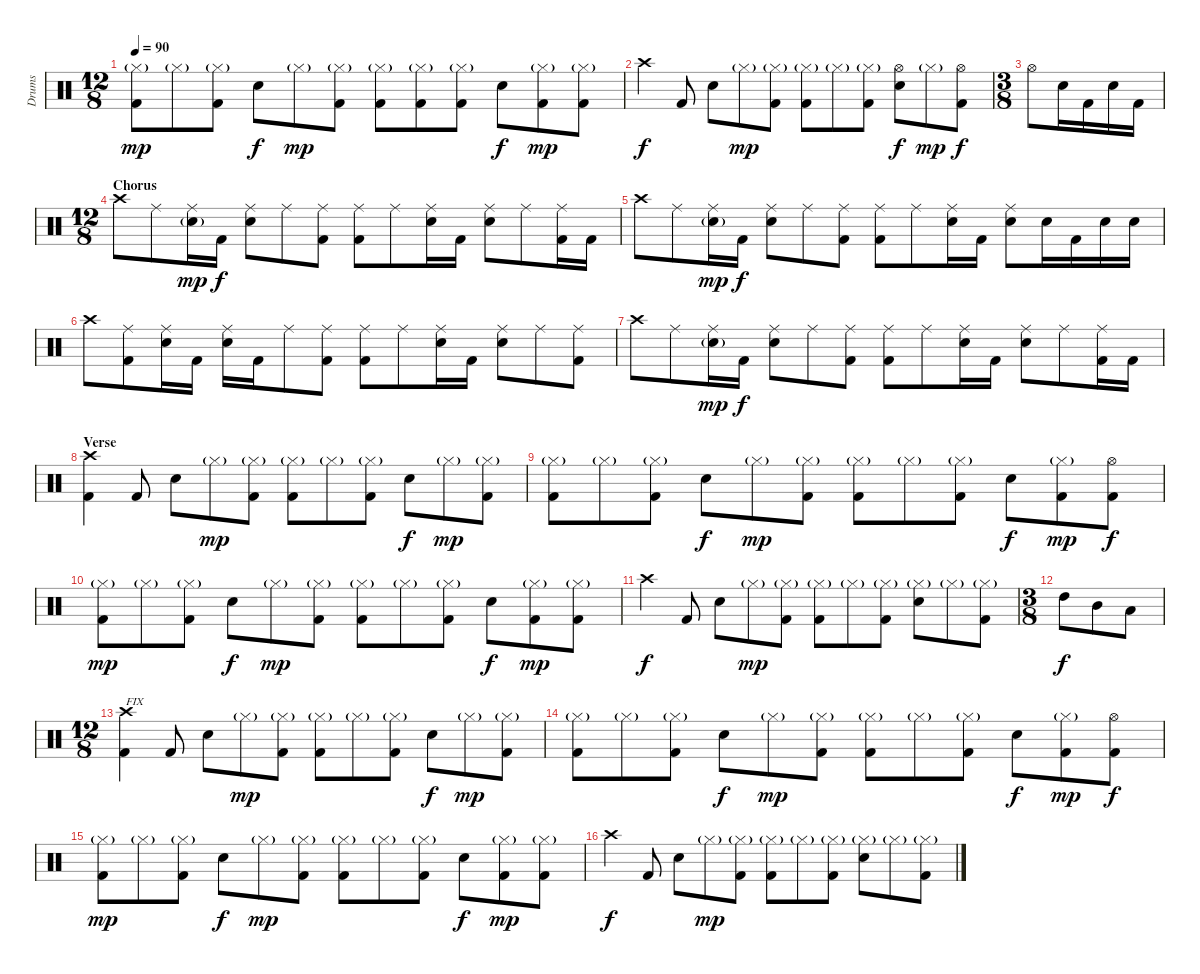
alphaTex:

\track ("Drums" "Drums") {instrument percussion}
\staff {score}
\articulation defaults
\ts (12 8)
\tempo 90
\clef neutral
\ks c
("Hi-Hat (closed)"{g} "Kick (hit) 2").8{dy mp} "Hi-Hat (closed)"{g}.8 ("Hi-Hat (closed)"{g} "Kick (hit) 2").8 "Electric Snare (hit)".8{dy f} "Hi-Hat (closed)"{g}.8{dy mp} ("Hi-Hat (closed)"{g} "Kick (hit) 2").8 ("Hi-Hat (closed)"{g} "Kick (hit) 2").8 ("Hi-Hat (closed)"{g} "Kick (hit) 2").8 ("Hi-Hat (closed)"{g} "Kick (hit) 2").8 "Electric Snare (hit)".8{dy f} ("Hi-Hat (closed)"{g} "Kick (hit) 2").8{dy mp} ("Hi-Hat (closed)"{g} "Kick (hit) 2").8 |
"Crash high (hit)".4{dy f} "Kick (hit) 2".8 "Electric Snare (hit)".8 "Hi-Hat (closed)"{g}.8{dy mp} ("Hi-Hat (closed)"{g} "Kick (hit) 2").8 ("Hi-Hat (closed)"{g} "Kick (hit) 2").8 "Hi-Hat (closed)"{g}.8 ("Hi-Hat (closed)"{g} "Kick (hit) 2").8 ("Hi-Hat (open)" "Electric Snare (hit)").8{dy f} "Hi-Hat (closed)"{g}.8{dy mp} ("Hi-Hat (open)" "Kick (hit) 2").8{dy f} |
\ts (3 8)
"Hi-Hat (open)".8 "Electric Snare (hit)".16 "Kick (hit) 2".16 "Electric Snare (hit)".16 "Kick (hit) 2".16 |
\ts (12 8)
\section ("" "Chorus")
"Crash high (hit)".8 "Ride (middle)".8 ("Ride (middle)" "Electric Snare (hit)"{g}).16{dy mp} "Kick (hit) 2".16{dy f} ("Ride (middle)" "Electric Snare (hit)").8 "Ride (middle)".8 ("Ride (middle)" "Kick (hit) 2").8 ("Ride (middle)" "Kick (hit) 2").8 "Ride (middle)".8 ("Ride (middle)" "Electric Snare (hit)").16 "Kick (hit) 2".16 ("Ride (middle)" "Electric Snare (hit)").8 "Ride (middle)".8 ("Ride (middle)" "Kick (hit) 2").16 "Kick (hit) 2".16 |
"Crash high (hit)".8 "Ride (middle)".8 ("Ride (middle)" "Electric Snare (hit)"{g}).16{dy mp} "Kick (hit) 2".16{dy f} ("Ride (middle)" "Electric Snare (hit)").8 "Ride (middle)".8 ("Ride (middle)" "Kick (hit) 2").8 ("Ride (middle)" "Kick (hit) 2").8 "Ride (middle)".8 ("Ride (middle)" "Electric Snare (hit)").16 "Kick (hit) 2".16 ("Ride (middle)" "Electric Snare (hit)").8 "Electric Snare (hit)".16 "Kick (hit) 2".16 "Electric Snare (hit)".16 "Electric Snare (hit)".16 |
"Crash high (hit)".8 ("Ride (middle)" "Kick (hit) 2").8 ("Ride (middle)" "Electric Snare (hit)").16 "Kick (hit) 2".16 ("Ride (middle)" "Electric Snare (hit)").16 "Kick (hit) 2".16 "Ride (middle)".8 ("Ride (middle)" "Kick (hit) 2").8 ("Ride (middle)" "Kick (hit) 2").8 "Ride (middle)".8 ("Ride (middle)" "Electric Snare (hit)").16 "Kick (hit) 2".16 ("Ride (middle)" "Electric Snare (hit)").8 "Ride (middle)".8 ("Ride (middle)" "Kick (hit) 2").8 |
"Crash high (hit)".8 "Ride (middle)".8 ("Ride (middle)" "Electric Snare (hit)"{g}).16{dy mp} "Kick (hit) 2".16{dy f} ("Ride (middle)" "Electric Snare (hit)").8 "Ride (middle)".8 ("Ride (middle)" "Kick (hit) 2").8 ("Ride (middle)" "Kick (hit) 2").8 "Ride (middle)".8 ("Ride (middle)" "Electric Snare (hit)").16 "Kick (hit) 2".16 ("Ride (middle)" "Electric Snare (hit)").8 "Ride (middle)".8 ("Ride (middle)" "Kick (hit) 2").16 "Kick (hit) 2".16 |
\section ("" "Verse")
("Crash high (hit)" "Kick (hit) 2").4 "Kick (hit) 2".8 "Electric Snare (hit)".8 "Hi-Hat (closed)"{g}.8{dy mp} ("Hi-Hat (closed)"{g} "Kick (hit) 2").8 ("Hi-Hat (closed)"{g} "Kick (hit) 2").8 "Hi-Hat (closed)"{g}.8 ("Hi-Hat (closed)"{g} "Kick (hit) 2").8 "Electric Snare (hit)".8{dy f} "Hi-Hat (closed)"{g}.8{dy mp} ("Hi-Hat (closed)"{g} "Kick (hit) 2").8 |
("Hi-Hat (closed)"{g} "Kick (hit) 2").8 "Hi-Hat (closed)"{g}.8 ("Hi-Hat (closed)"{g} "Kick (hit) 2").8 "Electric Snare (hit)".8{dy f} "Hi-Hat (closed)"{g}.8{dy mp} ("Hi-Hat (closed)"{g} "Kick (hit) 2").8 ("Hi-Hat (closed)"{g} "Kick (hit) 2").8 "Hi-Hat (closed)"{g}.8 ("Hi-Hat (closed)"{g} "Kick (hit) 2").8 "Electric Snare (hit)".8{dy f} ("Hi-Hat (closed)"{g} "Kick (hit) 2").8{dy mp} ("Hi-Hat (open)" "Kick (hit) 2").8{dy f} |
("Hi-Hat (closed)"{g} "Kick (hit) 2").8{dy mp} "Hi-Hat (closed)"{g}.8 ("Hi-Hat (closed)"{g} "Kick (hit) 2").8 "Electric Snare (hit)".8{dy f} "Hi-Hat (closed)"{g}.8{dy mp} ("Hi-Hat (closed)"{g} "Kick (hit) 2").8 ("Hi-Hat (closed)"{g} "Kick (hit) 2").8 "Hi-Hat (closed)"{g}.8 ("Hi-Hat (closed)"{g} "Kick (hit) 2").8 "Electric Snare (hit)".8{dy f} ("Hi-Hat (closed)"{g} "Kick (hit) 2").8{dy mp} ("Hi-Hat (closed)"{g} "Kick (hit) 2").8 |
"Crash high (hit)".4{dy f} "Kick (hit) 2".8 "Electric Snare (hit)".8 "Hi-Hat (closed)"{g}.8{dy mp} ("Hi-Hat (closed)"{g} "Kick (hit) 2").8 ("Hi-Hat (closed)"{g} "Kick (hit) 2").8 "Hi-Hat (closed)"{g}.8 ("Hi-Hat (closed)"{g} "Kick (hit) 2").8 ("Hi-Hat (closed)"{g} "Electric Snare (hit)").8 "Hi-Hat (closed)"{g}.8 ("Hi-Hat (closed)"{g} "Kick (hit) 2").8 |
\ts (3 8)
"High Tom (hit)".8{dy f} "Mid Tom (hit)".8 "Low Tom (hit)".8 |
\ts (12 8)
("Crash high (hit)" "Kick (hit) 2").4{txt "FIX"} "Kick (hit) 2".8 "Electric Snare (hit)".8 "Hi-Hat (closed)"{g}.8{dy mp} ("Hi-Hat (closed)"{g} "Kick (hit) 2").8 ("Hi-Hat (closed)"{g} "Kick (hit) 2").8 "Hi-Hat (closed)"{g}.8 ("Hi-Hat (closed)"{g} "Kick (hit) 2").8 "Electric Snare (hit)".8{dy f} "Hi-Hat (closed)"{g}.8{dy mp} ("Hi-Hat (closed)"{g} "Kick (hit) 2").8 |
("Hi-Hat (closed)"{g} "Kick (hit) 2").8 "Hi-Hat (closed)"{g}.8 ("Hi-Hat (closed)"{g} "Kick (hit) 2").8 "Electric Snare (hit)".8{dy f} "Hi-Hat (closed)"{g}.8{dy mp} ("Hi-Hat (closed)"{g} "Kick (hit) 2").8 ("Hi-Hat (closed)"{g} "Kick (hit) 2").8 "Hi-Hat (closed)"{g}.8 ("Hi-Hat (closed)"{g} "Kick (hit) 2").8 "Electric Snare (hit)".8{dy f} ("Hi-Hat (closed)"{g} "Kick (hit) 2").8{dy mp} ("Hi-Hat (open)" "Kick (hit) 2").8{dy f} |
("Hi-Hat (closed)"{g} "Kick (hit) 2").8{dy mp} "Hi-Hat (closed)"{g}.8 ("Hi-Hat (closed)"{g} "Kick (hit) 2").8 "Electric Snare (hit)".8{dy f} "Hi-Hat (closed)"{g}.8{dy mp} ("Hi-Hat (closed)"{g} "Kick (hit) 2").8 ("Hi-Hat (closed)"{g} "Kick (hit) 2").8 "Hi-Hat (closed)"{g}.8 ("Hi-Hat (closed)"{g} "Kick (hit) 2").8 "Electric Snare (hit)".8{dy f} ("Hi-Hat (closed)"{g} "Kick (hit) 2").8{dy mp} ("Hi-Hat (closed)"{g} "Kick (hit) 2").8 |
"Crash high (hit)".4{dy f} "Kick (hit) 2".8 "Electric Snare (hit)".8 "Hi-Hat (closed)"{g}.8{dy mp} ("Hi-Hat (closed)"{g} "Kick (hit) 2").8 ("Hi-Hat (closed)"{g} "Kick (hit) 2").8 "Hi-Hat (closed)"{g}.8 ("Hi-Hat (closed)"{g} "Kick (hit) 2").8 ("Hi-Hat (closed)"{g} "Electric Snare (hit)").8 "Hi-Hat (closed)"{g}.8 ("Hi-Hat (closed)"{g} "Kick (hit) 2").8
